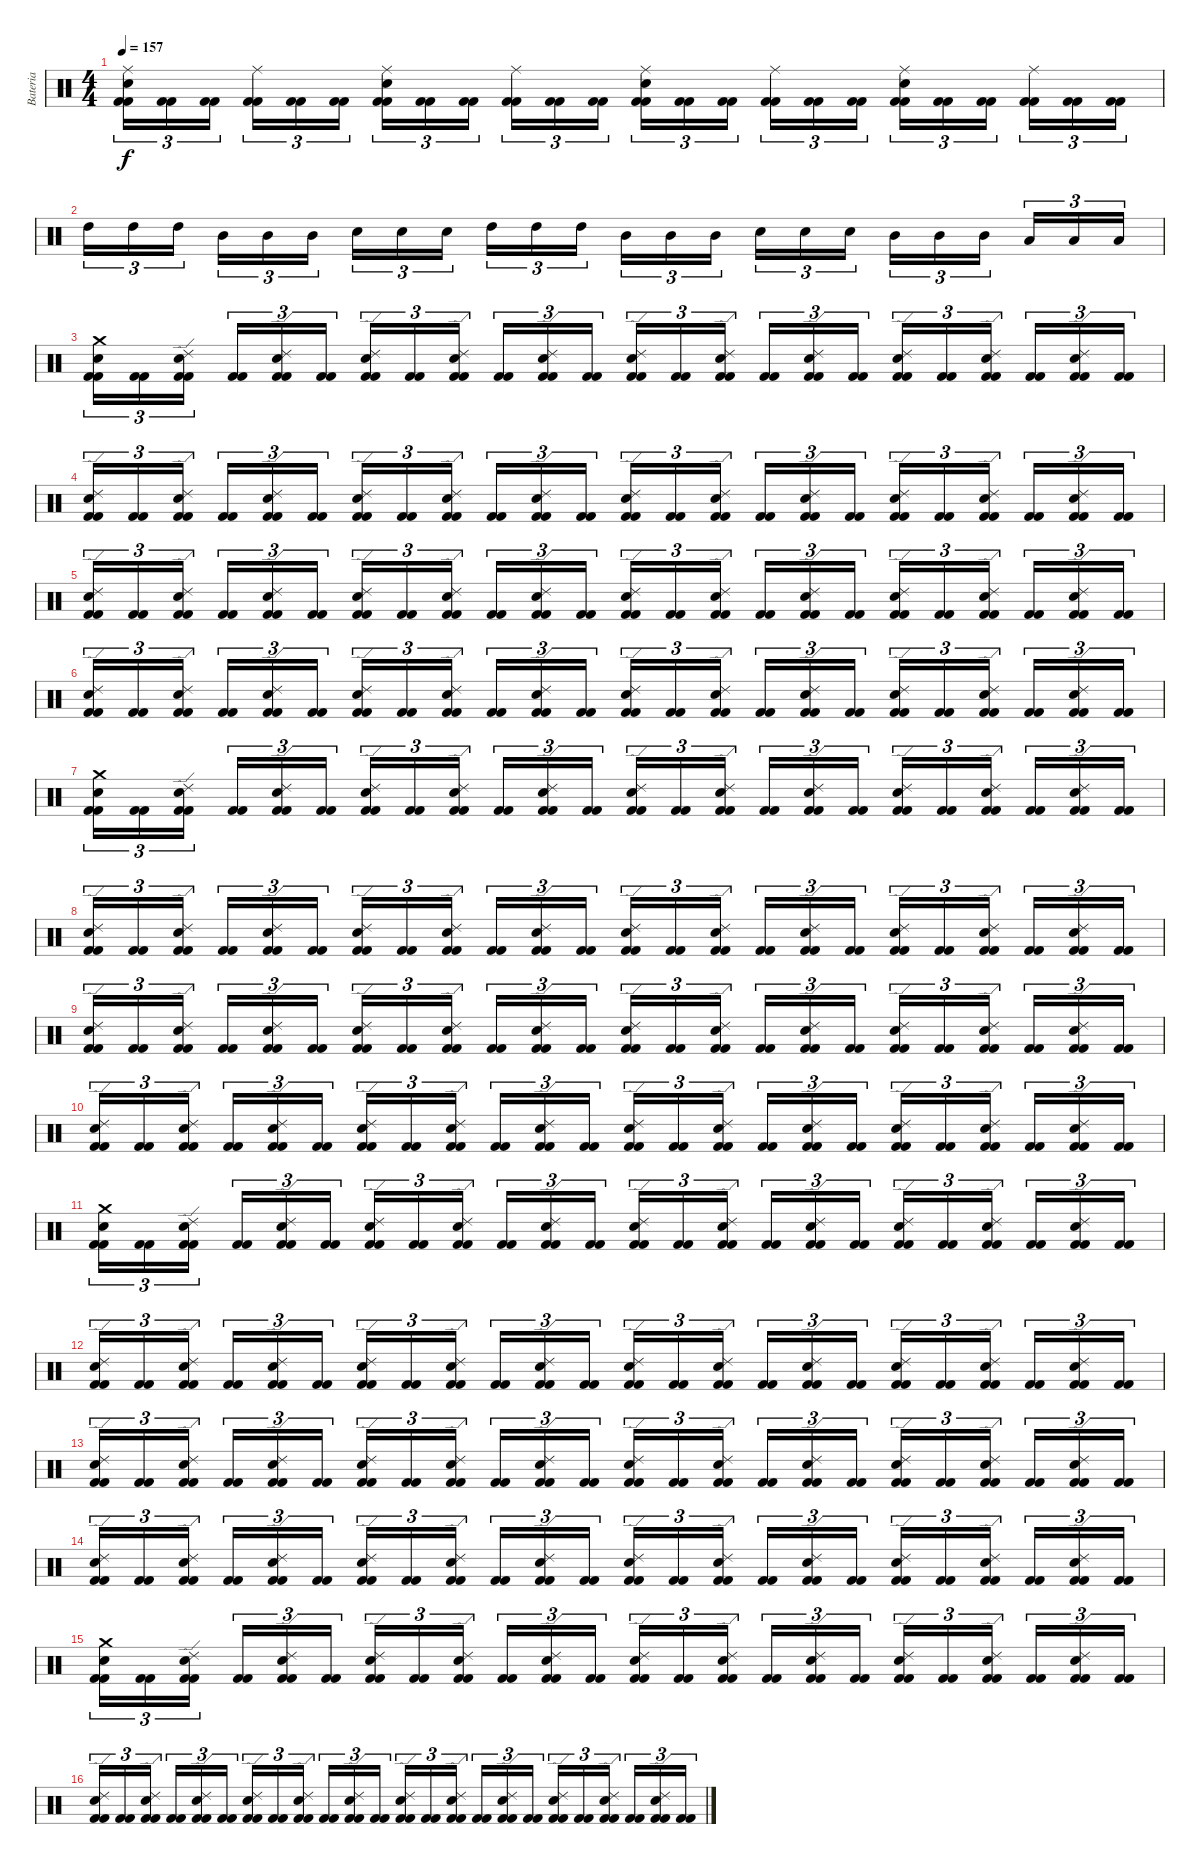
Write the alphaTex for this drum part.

\track ("Bateria" "Bateria") {instrument percussion}
\staff {score}
\articulation defaults
\ts (4 4)
\tempo 157
\clef neutral
\ks c
("Kick (hit) 2" "Kick (hit) 2" "Snare (hit) 2" "Ride (middle)").16{tu (3 2) dy f} ("Kick (hit) 2" "Kick (hit) 2").16{tu (3 2)} ("Kick (hit) 2" "Kick (hit) 2").16{tu (3 2)} ("Kick (hit) 2" "Kick (hit) 2" "Ride (middle)").16{tu (3 2)} ("Kick (hit) 2" "Kick (hit) 2").16{tu (3 2)} ("Kick (hit) 2" "Kick (hit) 2").16{tu (3 2)} ("Kick (hit) 2" "Kick (hit) 2" "Snare (hit) 2" "Ride (middle)").16{tu (3 2)} ("Kick (hit) 2" "Kick (hit) 2").16{tu (3 2)} ("Kick (hit) 2" "Kick (hit) 2").16{tu (3 2)} ("Kick (hit) 2" "Kick (hit) 2" "Ride (middle)").16{tu (3 2)} ("Kick (hit) 2" "Kick (hit) 2").16{tu (3 2)} ("Kick (hit) 2" "Kick (hit) 2").16{tu (3 2)} ("Kick (hit) 2" "Kick (hit) 2" "Snare (hit) 2" "Ride (middle)").16{tu (3 2)} ("Kick (hit) 2" "Kick (hit) 2").16{tu (3 2)} ("Kick (hit) 2" "Kick (hit) 2").16{tu (3 2)} ("Kick (hit) 2" "Kick (hit) 2" "Ride (middle)").16{tu (3 2)} ("Kick (hit) 2" "Kick (hit) 2").16{tu (3 2)} ("Kick (hit) 2" "Kick (hit) 2").16{tu (3 2)} ("Kick (hit) 2" "Kick (hit) 2" "Snare (hit) 2" "Ride (middle)").16{tu (3 2)} ("Kick (hit) 2" "Kick (hit) 2").16{tu (3 2)} ("Kick (hit) 2" "Kick (hit) 2").16{tu (3 2)} ("Kick (hit) 2" "Kick (hit) 2" "Ride (middle)").16{tu (3 2)} ("Kick (hit) 2" "Kick (hit) 2").16{tu (3 2)} ("Kick (hit) 2" "Kick (hit) 2").16{tu (3 2)} |
"High Tom (hit)".16{tu (3 2)} "High Tom (hit)".16{tu (3 2)} "High Tom (hit)".16{tu (3 2)} "Mid Tom (hit)".16{tu (3 2)} "Mid Tom (hit)".16{tu (3 2)} "Mid Tom (hit)".16{tu (3 2)} "Snare (hit) 2".16{tu (3 2)} "Snare (hit) 2".16{tu (3 2)} "Snare (hit) 2".16{tu (3 2)} "High Tom (hit)".16{tu (3 2)} "High Tom (hit)".16{tu (3 2)} "High Tom (hit)".16{tu (3 2)} "Mid Tom (hit)".16{tu (3 2)} "Mid Tom (hit)".16{tu (3 2)} "Mid Tom (hit)".16{tu (3 2)} "Snare (hit) 2".16{tu (3 2)} "Snare (hit) 2".16{tu (3 2)} "Snare (hit) 2".16{tu (3 2)} "Mid Tom (hit)".16{tu (3 2)} "Mid Tom (hit)".16{tu (3 2)} "Mid Tom (hit)".16{tu (3 2)} "Low Tom (hit)".16{tu (3 2)} "Low Tom (hit)".16{tu (3 2)} "Low Tom (hit)".16{tu (3 2)} |
("Kick (hit) 2" "Kick (hit) 2" "Snare (hit) 2" "Crash medium (hit)").16{tu (3 2)} ("Kick (hit) 2" "Kick (hit) 2").16{tu (3 2)} ("Kick (hit) 2" "Kick (hit) 2" "Snare (hit) 2" "Ride (edge) 2").16{tu (3 2)} ("Kick (hit) 2" "Kick (hit) 2").16{tu (3 2)} ("Kick (hit) 2" "Kick (hit) 2" "Snare (hit) 2" "Ride (edge) 2").16{tu (3 2)} ("Kick (hit) 2" "Kick (hit) 2").16{tu (3 2)} ("Kick (hit) 2" "Kick (hit) 2" "Snare (hit) 2" "Ride (edge) 2").16{tu (3 2)} ("Kick (hit) 2" "Kick (hit) 2").16{tu (3 2)} ("Kick (hit) 2" "Kick (hit) 2" "Snare (hit) 2" "Ride (edge) 2").16{tu (3 2)} ("Kick (hit) 2" "Kick (hit) 2").16{tu (3 2)} ("Kick (hit) 2" "Kick (hit) 2" "Snare (hit) 2" "Ride (edge) 2").16{tu (3 2)} ("Kick (hit) 2" "Kick (hit) 2").16{tu (3 2)} ("Kick (hit) 2" "Kick (hit) 2" "Snare (hit) 2" "Ride (edge) 2").16{tu (3 2)} ("Kick (hit) 2" "Kick (hit) 2").16{tu (3 2)} ("Kick (hit) 2" "Kick (hit) 2" "Snare (hit) 2" "Ride (edge) 2").16{tu (3 2)} ("Kick (hit) 2" "Kick (hit) 2").16{tu (3 2)} ("Kick (hit) 2" "Kick (hit) 2" "Snare (hit) 2" "Ride (edge) 2").16{tu (3 2)} ("Kick (hit) 2" "Kick (hit) 2").16{tu (3 2)} ("Kick (hit) 2" "Kick (hit) 2" "Snare (hit) 2" "Ride (edge) 2").16{tu (3 2)} ("Kick (hit) 2" "Kick (hit) 2").16{tu (3 2)} ("Kick (hit) 2" "Kick (hit) 2" "Snare (hit) 2" "Ride (edge) 2").16{tu (3 2)} ("Kick (hit) 2" "Kick (hit) 2").16{tu (3 2)} ("Kick (hit) 2" "Kick (hit) 2" "Snare (hit) 2" "Ride (edge) 2").16{tu (3 2)} ("Kick (hit) 2" "Kick (hit) 2").16{tu (3 2)} |
("Kick (hit) 2" "Kick (hit) 2" "Snare (hit) 2" "Ride (edge) 2").16{tu (3 2)} ("Kick (hit) 2" "Kick (hit) 2").16{tu (3 2)} ("Kick (hit) 2" "Kick (hit) 2" "Snare (hit) 2" "Ride (edge) 2").16{tu (3 2)} ("Kick (hit) 2" "Kick (hit) 2").16{tu (3 2)} ("Kick (hit) 2" "Kick (hit) 2" "Snare (hit) 2" "Ride (edge) 2").16{tu (3 2)} ("Kick (hit) 2" "Kick (hit) 2").16{tu (3 2)} ("Kick (hit) 2" "Kick (hit) 2" "Snare (hit) 2" "Ride (edge) 2").16{tu (3 2)} ("Kick (hit) 2" "Kick (hit) 2").16{tu (3 2)} ("Kick (hit) 2" "Kick (hit) 2" "Snare (hit) 2" "Ride (edge) 2").16{tu (3 2)} ("Kick (hit) 2" "Kick (hit) 2").16{tu (3 2)} ("Kick (hit) 2" "Kick (hit) 2" "Snare (hit) 2" "Ride (edge) 2").16{tu (3 2)} ("Kick (hit) 2" "Kick (hit) 2").16{tu (3 2)} ("Kick (hit) 2" "Kick (hit) 2" "Snare (hit) 2" "Ride (edge) 2").16{tu (3 2)} ("Kick (hit) 2" "Kick (hit) 2").16{tu (3 2)} ("Kick (hit) 2" "Kick (hit) 2" "Snare (hit) 2" "Ride (edge) 2").16{tu (3 2)} ("Kick (hit) 2" "Kick (hit) 2").16{tu (3 2)} ("Kick (hit) 2" "Kick (hit) 2" "Snare (hit) 2" "Ride (edge) 2").16{tu (3 2)} ("Kick (hit) 2" "Kick (hit) 2").16{tu (3 2)} ("Kick (hit) 2" "Kick (hit) 2" "Snare (hit) 2" "Ride (edge) 2").16{tu (3 2)} ("Kick (hit) 2" "Kick (hit) 2").16{tu (3 2)} ("Kick (hit) 2" "Kick (hit) 2" "Snare (hit) 2" "Ride (edge) 2").16{tu (3 2)} ("Kick (hit) 2" "Kick (hit) 2").16{tu (3 2)} ("Kick (hit) 2" "Kick (hit) 2" "Snare (hit) 2" "Ride (edge) 2").16{tu (3 2)} ("Kick (hit) 2" "Kick (hit) 2").16{tu (3 2)} |
("Kick (hit) 2" "Kick (hit) 2" "Snare (hit) 2" "Ride (edge) 2").16{tu (3 2)} ("Kick (hit) 2" "Kick (hit) 2").16{tu (3 2)} ("Kick (hit) 2" "Kick (hit) 2" "Snare (hit) 2" "Ride (edge) 2").16{tu (3 2)} ("Kick (hit) 2" "Kick (hit) 2").16{tu (3 2)} ("Kick (hit) 2" "Kick (hit) 2" "Snare (hit) 2" "Ride (edge) 2").16{tu (3 2)} ("Kick (hit) 2" "Kick (hit) 2").16{tu (3 2)} ("Kick (hit) 2" "Kick (hit) 2" "Snare (hit) 2" "Ride (edge) 2").16{tu (3 2)} ("Kick (hit) 2" "Kick (hit) 2").16{tu (3 2)} ("Kick (hit) 2" "Kick (hit) 2" "Snare (hit) 2" "Ride (edge) 2").16{tu (3 2)} ("Kick (hit) 2" "Kick (hit) 2").16{tu (3 2)} ("Kick (hit) 2" "Kick (hit) 2" "Snare (hit) 2" "Ride (edge) 2").16{tu (3 2)} ("Kick (hit) 2" "Kick (hit) 2").16{tu (3 2)} ("Kick (hit) 2" "Kick (hit) 2" "Snare (hit) 2" "Ride (edge) 2").16{tu (3 2)} ("Kick (hit) 2" "Kick (hit) 2").16{tu (3 2)} ("Kick (hit) 2" "Kick (hit) 2" "Snare (hit) 2" "Ride (edge) 2").16{tu (3 2)} ("Kick (hit) 2" "Kick (hit) 2").16{tu (3 2)} ("Kick (hit) 2" "Kick (hit) 2" "Snare (hit) 2" "Ride (edge) 2").16{tu (3 2)} ("Kick (hit) 2" "Kick (hit) 2").16{tu (3 2)} ("Kick (hit) 2" "Kick (hit) 2" "Snare (hit) 2" "Ride (edge) 2").16{tu (3 2)} ("Kick (hit) 2" "Kick (hit) 2").16{tu (3 2)} ("Kick (hit) 2" "Kick (hit) 2" "Snare (hit) 2" "Ride (edge) 2").16{tu (3 2)} ("Kick (hit) 2" "Kick (hit) 2").16{tu (3 2)} ("Kick (hit) 2" "Kick (hit) 2" "Snare (hit) 2" "Ride (edge) 2").16{tu (3 2)} ("Kick (hit) 2" "Kick (hit) 2").16{tu (3 2)} |
("Kick (hit) 2" "Kick (hit) 2" "Snare (hit) 2" "Ride (edge) 2").16{tu (3 2)} ("Kick (hit) 2" "Kick (hit) 2").16{tu (3 2)} ("Kick (hit) 2" "Kick (hit) 2" "Snare (hit) 2" "Ride (edge) 2").16{tu (3 2)} ("Kick (hit) 2" "Kick (hit) 2").16{tu (3 2)} ("Kick (hit) 2" "Kick (hit) 2" "Snare (hit) 2" "Ride (edge) 2").16{tu (3 2)} ("Kick (hit) 2" "Kick (hit) 2").16{tu (3 2)} ("Kick (hit) 2" "Kick (hit) 2" "Snare (hit) 2" "Ride (edge) 2").16{tu (3 2)} ("Kick (hit) 2" "Kick (hit) 2").16{tu (3 2)} ("Kick (hit) 2" "Kick (hit) 2" "Snare (hit) 2" "Ride (edge) 2").16{tu (3 2)} ("Kick (hit) 2" "Kick (hit) 2").16{tu (3 2)} ("Kick (hit) 2" "Kick (hit) 2" "Snare (hit) 2" "Ride (edge) 2").16{tu (3 2)} ("Kick (hit) 2" "Kick (hit) 2").16{tu (3 2)} ("Kick (hit) 2" "Kick (hit) 2" "Snare (hit) 2" "Ride (edge) 2").16{tu (3 2)} ("Kick (hit) 2" "Kick (hit) 2").16{tu (3 2)} ("Kick (hit) 2" "Kick (hit) 2" "Snare (hit) 2" "Ride (edge) 2").16{tu (3 2)} ("Kick (hit) 2" "Kick (hit) 2").16{tu (3 2)} ("Kick (hit) 2" "Kick (hit) 2" "Snare (hit) 2" "Ride (edge) 2").16{tu (3 2)} ("Kick (hit) 2" "Kick (hit) 2").16{tu (3 2)} ("Kick (hit) 2" "Kick (hit) 2" "Snare (hit) 2" "Ride (edge) 2").16{tu (3 2)} ("Kick (hit) 2" "Kick (hit) 2").16{tu (3 2)} ("Kick (hit) 2" "Kick (hit) 2" "Snare (hit) 2" "Ride (edge) 2").16{tu (3 2)} ("Kick (hit) 2" "Kick (hit) 2").16{tu (3 2)} ("Kick (hit) 2" "Kick (hit) 2" "Snare (hit) 2" "Ride (edge) 2").16{tu (3 2)} ("Kick (hit) 2" "Kick (hit) 2").16{tu (3 2)} |
("Kick (hit) 2" "Kick (hit) 2" "Snare (hit) 2" "Crash medium (hit)").16{tu (3 2)} ("Kick (hit) 2" "Kick (hit) 2").16{tu (3 2)} ("Kick (hit) 2" "Kick (hit) 2" "Snare (hit) 2" "Ride (edge) 2").16{tu (3 2)} ("Kick (hit) 2" "Kick (hit) 2").16{tu (3 2)} ("Kick (hit) 2" "Kick (hit) 2" "Snare (hit) 2" "Ride (edge) 2").16{tu (3 2)} ("Kick (hit) 2" "Kick (hit) 2").16{tu (3 2)} ("Kick (hit) 2" "Kick (hit) 2" "Snare (hit) 2" "Ride (edge) 2").16{tu (3 2)} ("Kick (hit) 2" "Kick (hit) 2").16{tu (3 2)} ("Kick (hit) 2" "Kick (hit) 2" "Snare (hit) 2" "Ride (edge) 2").16{tu (3 2)} ("Kick (hit) 2" "Kick (hit) 2").16{tu (3 2)} ("Kick (hit) 2" "Kick (hit) 2" "Snare (hit) 2" "Ride (edge) 2").16{tu (3 2)} ("Kick (hit) 2" "Kick (hit) 2").16{tu (3 2)} ("Kick (hit) 2" "Kick (hit) 2" "Snare (hit) 2" "Ride (edge) 2").16{tu (3 2)} ("Kick (hit) 2" "Kick (hit) 2").16{tu (3 2)} ("Kick (hit) 2" "Kick (hit) 2" "Snare (hit) 2" "Ride (edge) 2").16{tu (3 2)} ("Kick (hit) 2" "Kick (hit) 2").16{tu (3 2)} ("Kick (hit) 2" "Kick (hit) 2" "Snare (hit) 2" "Ride (edge) 2").16{tu (3 2)} ("Kick (hit) 2" "Kick (hit) 2").16{tu (3 2)} ("Kick (hit) 2" "Kick (hit) 2" "Snare (hit) 2" "Ride (edge) 2").16{tu (3 2)} ("Kick (hit) 2" "Kick (hit) 2").16{tu (3 2)} ("Kick (hit) 2" "Kick (hit) 2" "Snare (hit) 2" "Ride (edge) 2").16{tu (3 2)} ("Kick (hit) 2" "Kick (hit) 2").16{tu (3 2)} ("Kick (hit) 2" "Kick (hit) 2" "Snare (hit) 2" "Ride (edge) 2").16{tu (3 2)} ("Kick (hit) 2" "Kick (hit) 2").16{tu (3 2)} |
("Kick (hit) 2" "Kick (hit) 2" "Snare (hit) 2" "Ride (edge) 2").16{tu (3 2)} ("Kick (hit) 2" "Kick (hit) 2").16{tu (3 2)} ("Kick (hit) 2" "Kick (hit) 2" "Snare (hit) 2" "Ride (edge) 2").16{tu (3 2)} ("Kick (hit) 2" "Kick (hit) 2").16{tu (3 2)} ("Kick (hit) 2" "Kick (hit) 2" "Snare (hit) 2" "Ride (edge) 2").16{tu (3 2)} ("Kick (hit) 2" "Kick (hit) 2").16{tu (3 2)} ("Kick (hit) 2" "Kick (hit) 2" "Snare (hit) 2" "Ride (edge) 2").16{tu (3 2)} ("Kick (hit) 2" "Kick (hit) 2").16{tu (3 2)} ("Kick (hit) 2" "Kick (hit) 2" "Snare (hit) 2" "Ride (edge) 2").16{tu (3 2)} ("Kick (hit) 2" "Kick (hit) 2").16{tu (3 2)} ("Kick (hit) 2" "Kick (hit) 2" "Snare (hit) 2" "Ride (edge) 2").16{tu (3 2)} ("Kick (hit) 2" "Kick (hit) 2").16{tu (3 2)} ("Kick (hit) 2" "Kick (hit) 2" "Snare (hit) 2" "Ride (edge) 2").16{tu (3 2)} ("Kick (hit) 2" "Kick (hit) 2").16{tu (3 2)} ("Kick (hit) 2" "Kick (hit) 2" "Snare (hit) 2" "Ride (edge) 2").16{tu (3 2)} ("Kick (hit) 2" "Kick (hit) 2").16{tu (3 2)} ("Kick (hit) 2" "Kick (hit) 2" "Snare (hit) 2" "Ride (edge) 2").16{tu (3 2)} ("Kick (hit) 2" "Kick (hit) 2").16{tu (3 2)} ("Kick (hit) 2" "Kick (hit) 2" "Snare (hit) 2" "Ride (edge) 2").16{tu (3 2)} ("Kick (hit) 2" "Kick (hit) 2").16{tu (3 2)} ("Kick (hit) 2" "Kick (hit) 2" "Snare (hit) 2" "Ride (edge) 2").16{tu (3 2)} ("Kick (hit) 2" "Kick (hit) 2").16{tu (3 2)} ("Kick (hit) 2" "Kick (hit) 2" "Snare (hit) 2" "Ride (edge) 2").16{tu (3 2)} ("Kick (hit) 2" "Kick (hit) 2").16{tu (3 2)} |
("Kick (hit) 2" "Kick (hit) 2" "Snare (hit) 2" "Ride (edge) 2").16{tu (3 2)} ("Kick (hit) 2" "Kick (hit) 2").16{tu (3 2)} ("Kick (hit) 2" "Kick (hit) 2" "Snare (hit) 2" "Ride (edge) 2").16{tu (3 2)} ("Kick (hit) 2" "Kick (hit) 2").16{tu (3 2)} ("Kick (hit) 2" "Kick (hit) 2" "Snare (hit) 2" "Ride (edge) 2").16{tu (3 2)} ("Kick (hit) 2" "Kick (hit) 2").16{tu (3 2)} ("Kick (hit) 2" "Kick (hit) 2" "Snare (hit) 2" "Ride (edge) 2").16{tu (3 2)} ("Kick (hit) 2" "Kick (hit) 2").16{tu (3 2)} ("Kick (hit) 2" "Kick (hit) 2" "Snare (hit) 2" "Ride (edge) 2").16{tu (3 2)} ("Kick (hit) 2" "Kick (hit) 2").16{tu (3 2)} ("Kick (hit) 2" "Kick (hit) 2" "Snare (hit) 2" "Ride (edge) 2").16{tu (3 2)} ("Kick (hit) 2" "Kick (hit) 2").16{tu (3 2)} ("Kick (hit) 2" "Kick (hit) 2" "Snare (hit) 2" "Ride (edge) 2").16{tu (3 2)} ("Kick (hit) 2" "Kick (hit) 2").16{tu (3 2)} ("Kick (hit) 2" "Kick (hit) 2" "Snare (hit) 2" "Ride (edge) 2").16{tu (3 2)} ("Kick (hit) 2" "Kick (hit) 2").16{tu (3 2)} ("Kick (hit) 2" "Kick (hit) 2" "Snare (hit) 2" "Ride (edge) 2").16{tu (3 2)} ("Kick (hit) 2" "Kick (hit) 2").16{tu (3 2)} ("Kick (hit) 2" "Kick (hit) 2" "Snare (hit) 2" "Ride (edge) 2").16{tu (3 2)} ("Kick (hit) 2" "Kick (hit) 2").16{tu (3 2)} ("Kick (hit) 2" "Kick (hit) 2" "Snare (hit) 2" "Ride (edge) 2").16{tu (3 2)} ("Kick (hit) 2" "Kick (hit) 2").16{tu (3 2)} ("Kick (hit) 2" "Kick (hit) 2" "Snare (hit) 2" "Ride (edge) 2").16{tu (3 2)} ("Kick (hit) 2" "Kick (hit) 2").16{tu (3 2)} |
("Kick (hit) 2" "Kick (hit) 2" "Snare (hit) 2" "Ride (edge) 2").16{tu (3 2)} ("Kick (hit) 2" "Kick (hit) 2").16{tu (3 2)} ("Kick (hit) 2" "Kick (hit) 2" "Snare (hit) 2" "Ride (edge) 2").16{tu (3 2)} ("Kick (hit) 2" "Kick (hit) 2").16{tu (3 2)} ("Kick (hit) 2" "Kick (hit) 2" "Snare (hit) 2" "Ride (edge) 2").16{tu (3 2)} ("Kick (hit) 2" "Kick (hit) 2").16{tu (3 2)} ("Kick (hit) 2" "Kick (hit) 2" "Snare (hit) 2" "Ride (edge) 2").16{tu (3 2)} ("Kick (hit) 2" "Kick (hit) 2").16{tu (3 2)} ("Kick (hit) 2" "Kick (hit) 2" "Snare (hit) 2" "Ride (edge) 2").16{tu (3 2)} ("Kick (hit) 2" "Kick (hit) 2").16{tu (3 2)} ("Kick (hit) 2" "Kick (hit) 2" "Snare (hit) 2" "Ride (edge) 2").16{tu (3 2)} ("Kick (hit) 2" "Kick (hit) 2").16{tu (3 2)} ("Kick (hit) 2" "Kick (hit) 2" "Snare (hit) 2" "Ride (edge) 2").16{tu (3 2)} ("Kick (hit) 2" "Kick (hit) 2").16{tu (3 2)} ("Kick (hit) 2" "Kick (hit) 2" "Snare (hit) 2" "Ride (edge) 2").16{tu (3 2)} ("Kick (hit) 2" "Kick (hit) 2").16{tu (3 2)} ("Kick (hit) 2" "Kick (hit) 2" "Snare (hit) 2" "Ride (edge) 2").16{tu (3 2)} ("Kick (hit) 2" "Kick (hit) 2").16{tu (3 2)} ("Kick (hit) 2" "Kick (hit) 2" "Snare (hit) 2" "Ride (edge) 2").16{tu (3 2)} ("Kick (hit) 2" "Kick (hit) 2").16{tu (3 2)} ("Kick (hit) 2" "Kick (hit) 2" "Snare (hit) 2" "Ride (edge) 2").16{tu (3 2)} ("Kick (hit) 2" "Kick (hit) 2").16{tu (3 2)} ("Kick (hit) 2" "Kick (hit) 2" "Snare (hit) 2" "Ride (edge) 2").16{tu (3 2)} ("Kick (hit) 2" "Kick (hit) 2").16{tu (3 2)} |
("Kick (hit) 2" "Kick (hit) 2" "Snare (hit) 2" "Crash medium (hit)").16{tu (3 2)} ("Kick (hit) 2" "Kick (hit) 2").16{tu (3 2)} ("Kick (hit) 2" "Kick (hit) 2" "Snare (hit) 2" "Ride (edge) 2").16{tu (3 2)} ("Kick (hit) 2" "Kick (hit) 2").16{tu (3 2)} ("Kick (hit) 2" "Kick (hit) 2" "Snare (hit) 2" "Ride (edge) 2").16{tu (3 2)} ("Kick (hit) 2" "Kick (hit) 2").16{tu (3 2)} ("Kick (hit) 2" "Kick (hit) 2" "Snare (hit) 2" "Ride (edge) 2").16{tu (3 2)} ("Kick (hit) 2" "Kick (hit) 2").16{tu (3 2)} ("Kick (hit) 2" "Kick (hit) 2" "Snare (hit) 2" "Ride (edge) 2").16{tu (3 2)} ("Kick (hit) 2" "Kick (hit) 2").16{tu (3 2)} ("Kick (hit) 2" "Kick (hit) 2" "Snare (hit) 2" "Ride (edge) 2").16{tu (3 2)} ("Kick (hit) 2" "Kick (hit) 2").16{tu (3 2)} ("Kick (hit) 2" "Kick (hit) 2" "Snare (hit) 2" "Ride (edge) 2").16{tu (3 2)} ("Kick (hit) 2" "Kick (hit) 2").16{tu (3 2)} ("Kick (hit) 2" "Kick (hit) 2" "Snare (hit) 2" "Ride (edge) 2").16{tu (3 2)} ("Kick (hit) 2" "Kick (hit) 2").16{tu (3 2)} ("Kick (hit) 2" "Kick (hit) 2" "Snare (hit) 2" "Ride (edge) 2").16{tu (3 2)} ("Kick (hit) 2" "Kick (hit) 2").16{tu (3 2)} ("Kick (hit) 2" "Kick (hit) 2" "Snare (hit) 2" "Ride (edge) 2").16{tu (3 2)} ("Kick (hit) 2" "Kick (hit) 2").16{tu (3 2)} ("Kick (hit) 2" "Kick (hit) 2" "Snare (hit) 2" "Ride (edge) 2").16{tu (3 2)} ("Kick (hit) 2" "Kick (hit) 2").16{tu (3 2)} ("Kick (hit) 2" "Kick (hit) 2" "Snare (hit) 2" "Ride (edge) 2").16{tu (3 2)} ("Kick (hit) 2" "Kick (hit) 2").16{tu (3 2)} |
("Kick (hit) 2" "Kick (hit) 2" "Snare (hit) 2" "Ride (edge) 2").16{tu (3 2)} ("Kick (hit) 2" "Kick (hit) 2").16{tu (3 2)} ("Kick (hit) 2" "Kick (hit) 2" "Snare (hit) 2" "Ride (edge) 2").16{tu (3 2)} ("Kick (hit) 2" "Kick (hit) 2").16{tu (3 2)} ("Kick (hit) 2" "Kick (hit) 2" "Snare (hit) 2" "Ride (edge) 2").16{tu (3 2)} ("Kick (hit) 2" "Kick (hit) 2").16{tu (3 2)} ("Kick (hit) 2" "Kick (hit) 2" "Snare (hit) 2" "Ride (edge) 2").16{tu (3 2)} ("Kick (hit) 2" "Kick (hit) 2").16{tu (3 2)} ("Kick (hit) 2" "Kick (hit) 2" "Snare (hit) 2" "Ride (edge) 2").16{tu (3 2)} ("Kick (hit) 2" "Kick (hit) 2").16{tu (3 2)} ("Kick (hit) 2" "Kick (hit) 2" "Snare (hit) 2" "Ride (edge) 2").16{tu (3 2)} ("Kick (hit) 2" "Kick (hit) 2").16{tu (3 2)} ("Kick (hit) 2" "Kick (hit) 2" "Snare (hit) 2" "Ride (edge) 2").16{tu (3 2)} ("Kick (hit) 2" "Kick (hit) 2").16{tu (3 2)} ("Kick (hit) 2" "Kick (hit) 2" "Snare (hit) 2" "Ride (edge) 2").16{tu (3 2)} ("Kick (hit) 2" "Kick (hit) 2").16{tu (3 2)} ("Kick (hit) 2" "Kick (hit) 2" "Snare (hit) 2" "Ride (edge) 2").16{tu (3 2)} ("Kick (hit) 2" "Kick (hit) 2").16{tu (3 2)} ("Kick (hit) 2" "Kick (hit) 2" "Snare (hit) 2" "Ride (edge) 2").16{tu (3 2)} ("Kick (hit) 2" "Kick (hit) 2").16{tu (3 2)} ("Kick (hit) 2" "Kick (hit) 2" "Snare (hit) 2" "Ride (edge) 2").16{tu (3 2)} ("Kick (hit) 2" "Kick (hit) 2").16{tu (3 2)} ("Kick (hit) 2" "Kick (hit) 2" "Snare (hit) 2" "Ride (edge) 2").16{tu (3 2)} ("Kick (hit) 2" "Kick (hit) 2").16{tu (3 2)} |
("Kick (hit) 2" "Kick (hit) 2" "Snare (hit) 2" "Ride (edge) 2").16{tu (3 2)} ("Kick (hit) 2" "Kick (hit) 2").16{tu (3 2)} ("Kick (hit) 2" "Kick (hit) 2" "Snare (hit) 2" "Ride (edge) 2").16{tu (3 2)} ("Kick (hit) 2" "Kick (hit) 2").16{tu (3 2)} ("Kick (hit) 2" "Kick (hit) 2" "Snare (hit) 2" "Ride (edge) 2").16{tu (3 2)} ("Kick (hit) 2" "Kick (hit) 2").16{tu (3 2)} ("Kick (hit) 2" "Kick (hit) 2" "Snare (hit) 2" "Ride (edge) 2").16{tu (3 2)} ("Kick (hit) 2" "Kick (hit) 2").16{tu (3 2)} ("Kick (hit) 2" "Kick (hit) 2" "Snare (hit) 2" "Ride (edge) 2").16{tu (3 2)} ("Kick (hit) 2" "Kick (hit) 2").16{tu (3 2)} ("Kick (hit) 2" "Kick (hit) 2" "Snare (hit) 2" "Ride (edge) 2").16{tu (3 2)} ("Kick (hit) 2" "Kick (hit) 2").16{tu (3 2)} ("Kick (hit) 2" "Kick (hit) 2" "Snare (hit) 2" "Ride (edge) 2").16{tu (3 2)} ("Kick (hit) 2" "Kick (hit) 2").16{tu (3 2)} ("Kick (hit) 2" "Kick (hit) 2" "Snare (hit) 2" "Ride (edge) 2").16{tu (3 2)} ("Kick (hit) 2" "Kick (hit) 2").16{tu (3 2)} ("Kick (hit) 2" "Kick (hit) 2" "Snare (hit) 2" "Ride (edge) 2").16{tu (3 2)} ("Kick (hit) 2" "Kick (hit) 2").16{tu (3 2)} ("Kick (hit) 2" "Kick (hit) 2" "Snare (hit) 2" "Ride (edge) 2").16{tu (3 2)} ("Kick (hit) 2" "Kick (hit) 2").16{tu (3 2)} ("Kick (hit) 2" "Kick (hit) 2" "Snare (hit) 2" "Ride (edge) 2").16{tu (3 2)} ("Kick (hit) 2" "Kick (hit) 2").16{tu (3 2)} ("Kick (hit) 2" "Kick (hit) 2" "Snare (hit) 2" "Ride (edge) 2").16{tu (3 2)} ("Kick (hit) 2" "Kick (hit) 2").16{tu (3 2)} |
("Kick (hit) 2" "Kick (hit) 2" "Snare (hit) 2" "Ride (edge) 2").16{tu (3 2)} ("Kick (hit) 2" "Kick (hit) 2").16{tu (3 2)} ("Kick (hit) 2" "Kick (hit) 2" "Snare (hit) 2" "Ride (edge) 2").16{tu (3 2)} ("Kick (hit) 2" "Kick (hit) 2").16{tu (3 2)} ("Kick (hit) 2" "Kick (hit) 2" "Snare (hit) 2" "Ride (edge) 2").16{tu (3 2)} ("Kick (hit) 2" "Kick (hit) 2").16{tu (3 2)} ("Kick (hit) 2" "Kick (hit) 2" "Snare (hit) 2" "Ride (edge) 2").16{tu (3 2)} ("Kick (hit) 2" "Kick (hit) 2").16{tu (3 2)} ("Kick (hit) 2" "Kick (hit) 2" "Snare (hit) 2" "Ride (edge) 2").16{tu (3 2)} ("Kick (hit) 2" "Kick (hit) 2").16{tu (3 2)} ("Kick (hit) 2" "Kick (hit) 2" "Snare (hit) 2" "Ride (edge) 2").16{tu (3 2)} ("Kick (hit) 2" "Kick (hit) 2").16{tu (3 2)} ("Kick (hit) 2" "Kick (hit) 2" "Snare (hit) 2" "Ride (edge) 2").16{tu (3 2)} ("Kick (hit) 2" "Kick (hit) 2").16{tu (3 2)} ("Kick (hit) 2" "Kick (hit) 2" "Snare (hit) 2" "Ride (edge) 2").16{tu (3 2)} ("Kick (hit) 2" "Kick (hit) 2").16{tu (3 2)} ("Kick (hit) 2" "Kick (hit) 2" "Snare (hit) 2" "Ride (edge) 2").16{tu (3 2)} ("Kick (hit) 2" "Kick (hit) 2").16{tu (3 2)} ("Kick (hit) 2" "Kick (hit) 2" "Snare (hit) 2" "Ride (edge) 2").16{tu (3 2)} ("Kick (hit) 2" "Kick (hit) 2").16{tu (3 2)} ("Kick (hit) 2" "Kick (hit) 2" "Snare (hit) 2" "Ride (edge) 2").16{tu (3 2)} ("Kick (hit) 2" "Kick (hit) 2").16{tu (3 2)} ("Kick (hit) 2" "Kick (hit) 2" "Snare (hit) 2" "Ride (edge) 2").16{tu (3 2)} ("Kick (hit) 2" "Kick (hit) 2").16{tu (3 2)} |
("Kick (hit) 2" "Kick (hit) 2" "Snare (hit) 2" "Crash medium (hit)").16{tu (3 2)} ("Kick (hit) 2" "Kick (hit) 2").16{tu (3 2)} ("Kick (hit) 2" "Kick (hit) 2" "Snare (hit) 2" "Ride (edge) 2").16{tu (3 2)} ("Kick (hit) 2" "Kick (hit) 2").16{tu (3 2)} ("Kick (hit) 2" "Kick (hit) 2" "Snare (hit) 2" "Ride (edge) 2").16{tu (3 2)} ("Kick (hit) 2" "Kick (hit) 2").16{tu (3 2)} ("Kick (hit) 2" "Kick (hit) 2" "Snare (hit) 2" "Ride (edge) 2").16{tu (3 2)} ("Kick (hit) 2" "Kick (hit) 2").16{tu (3 2)} ("Kick (hit) 2" "Kick (hit) 2" "Snare (hit) 2" "Ride (edge) 2").16{tu (3 2)} ("Kick (hit) 2" "Kick (hit) 2").16{tu (3 2)} ("Kick (hit) 2" "Kick (hit) 2" "Snare (hit) 2" "Ride (edge) 2").16{tu (3 2)} ("Kick (hit) 2" "Kick (hit) 2").16{tu (3 2)} ("Kick (hit) 2" "Kick (hit) 2" "Snare (hit) 2" "Ride (edge) 2").16{tu (3 2)} ("Kick (hit) 2" "Kick (hit) 2").16{tu (3 2)} ("Kick (hit) 2" "Kick (hit) 2" "Snare (hit) 2" "Ride (edge) 2").16{tu (3 2)} ("Kick (hit) 2" "Kick (hit) 2").16{tu (3 2)} ("Kick (hit) 2" "Kick (hit) 2" "Snare (hit) 2" "Ride (edge) 2").16{tu (3 2)} ("Kick (hit) 2" "Kick (hit) 2").16{tu (3 2)} ("Kick (hit) 2" "Kick (hit) 2" "Snare (hit) 2" "Ride (edge) 2").16{tu (3 2)} ("Kick (hit) 2" "Kick (hit) 2").16{tu (3 2)} ("Kick (hit) 2" "Kick (hit) 2" "Snare (hit) 2" "Ride (edge) 2").16{tu (3 2)} ("Kick (hit) 2" "Kick (hit) 2").16{tu (3 2)} ("Kick (hit) 2" "Kick (hit) 2" "Snare (hit) 2" "Ride (edge) 2").16{tu (3 2)} ("Kick (hit) 2" "Kick (hit) 2").16{tu (3 2)} |
("Kick (hit) 2" "Kick (hit) 2" "Snare (hit) 2" "Ride (edge) 2").16{tu (3 2)} ("Kick (hit) 2" "Kick (hit) 2").16{tu (3 2)} ("Kick (hit) 2" "Kick (hit) 2" "Snare (hit) 2" "Ride (edge) 2").16{tu (3 2)} ("Kick (hit) 2" "Kick (hit) 2").16{tu (3 2)} ("Kick (hit) 2" "Kick (hit) 2" "Snare (hit) 2" "Ride (edge) 2").16{tu (3 2)} ("Kick (hit) 2" "Kick (hit) 2").16{tu (3 2)} ("Kick (hit) 2" "Kick (hit) 2" "Snare (hit) 2" "Ride (edge) 2").16{tu (3 2)} ("Kick (hit) 2" "Kick (hit) 2").16{tu (3 2)} ("Kick (hit) 2" "Kick (hit) 2" "Snare (hit) 2" "Ride (edge) 2").16{tu (3 2)} ("Kick (hit) 2" "Kick (hit) 2").16{tu (3 2)} ("Kick (hit) 2" "Kick (hit) 2" "Snare (hit) 2" "Ride (edge) 2").16{tu (3 2)} ("Kick (hit) 2" "Kick (hit) 2").16{tu (3 2)} ("Kick (hit) 2" "Kick (hit) 2" "Snare (hit) 2" "Ride (edge) 2").16{tu (3 2)} ("Kick (hit) 2" "Kick (hit) 2").16{tu (3 2)} ("Kick (hit) 2" "Kick (hit) 2" "Snare (hit) 2" "Ride (edge) 2").16{tu (3 2)} ("Kick (hit) 2" "Kick (hit) 2").16{tu (3 2)} ("Kick (hit) 2" "Kick (hit) 2" "Snare (hit) 2" "Ride (edge) 2").16{tu (3 2)} ("Kick (hit) 2" "Kick (hit) 2").16{tu (3 2)} ("Kick (hit) 2" "Kick (hit) 2" "Snare (hit) 2" "Ride (edge) 2").16{tu (3 2)} ("Kick (hit) 2" "Kick (hit) 2").16{tu (3 2)} ("Kick (hit) 2" "Kick (hit) 2" "Snare (hit) 2" "Ride (edge) 2").16{tu (3 2)} ("Kick (hit) 2" "Kick (hit) 2").16{tu (3 2)} ("Kick (hit) 2" "Kick (hit) 2" "Snare (hit) 2" "Ride (edge) 2").16{tu (3 2)} ("Kick (hit) 2" "Kick (hit) 2").16{tu (3 2)}
